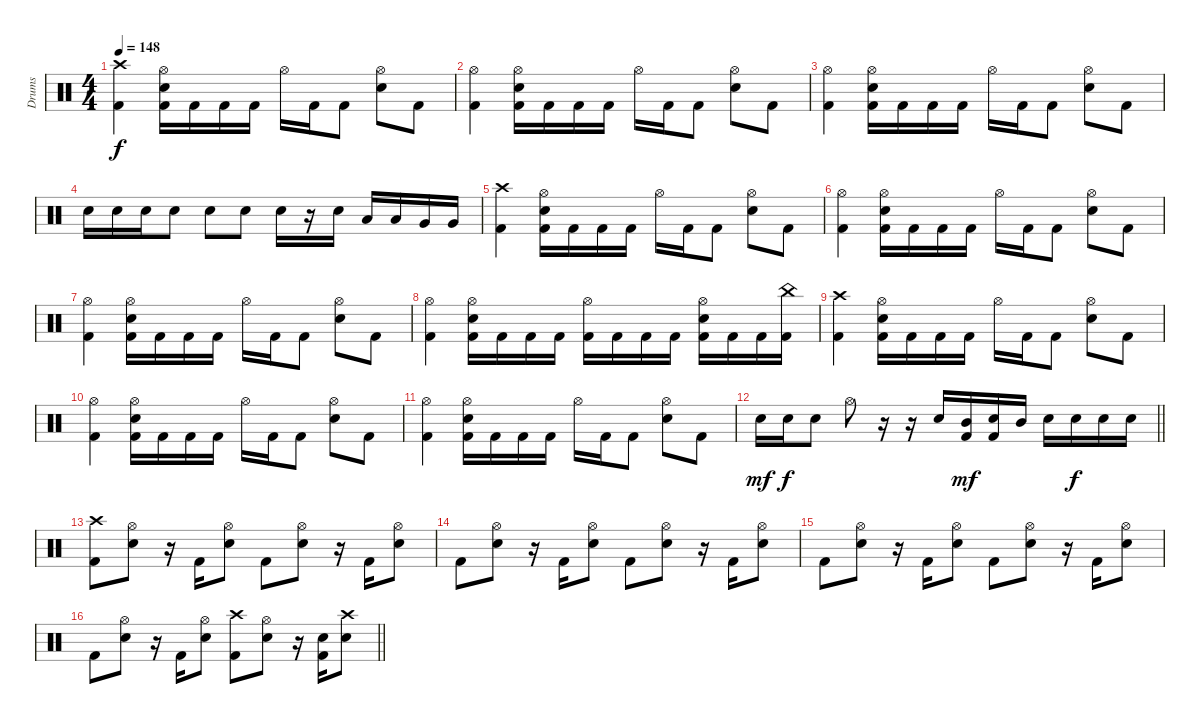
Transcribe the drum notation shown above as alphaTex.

\track ("Drums" "Drums") {instrument percussion}
\staff {score}
\articulation defaults
\ts (4 4)
\section ("" "")
\tempo 148
\clef neutral
\ks c
("Crash high (hit)" "Kick (hit) 2").4{dy f} ("Electric Snare (hit)" "Hi-Hat (open)" "Kick (hit) 2").16 "Kick (hit) 2".16 "Kick (hit) 2".16 "Kick (hit) 2".16 "Hi-Hat (open)".16 "Kick (hit) 2".16 "Kick (hit) 2".8 ("Electric Snare (hit)" "Hi-Hat (open)").8 "Kick (hit) 2".8 |
("Hi-Hat (open)" "Kick (hit) 2").4 ("Electric Snare (hit)" "Hi-Hat (open)" "Kick (hit) 2").16 "Kick (hit) 2".16 "Kick (hit) 2".16 "Kick (hit) 2".16 "Hi-Hat (open)".16 "Kick (hit) 2".16 "Kick (hit) 2".8 ("Electric Snare (hit)" "Hi-Hat (open)").8 "Kick (hit) 2".8 |
("Hi-Hat (open)" "Kick (hit) 2").4 ("Electric Snare (hit)" "Hi-Hat (open)" "Kick (hit) 2").16 "Kick (hit) 2".16 "Kick (hit) 2".16 "Kick (hit) 2".16 "Hi-Hat (open)".16 "Kick (hit) 2".16 "Kick (hit) 2".8 ("Electric Snare (hit)" "Hi-Hat (open)").8 "Kick (hit) 2".8 |
"Electric Snare (hit)".16 "Electric Snare (hit)".16 "Electric Snare (hit)".16 "Electric Snare (hit)".8 "Electric Snare (hit)".8 "Electric Snare (hit)".8 "Electric Snare (hit)".16 r.16 "Electric Snare (hit)".16 "Low Tom (hit)".16 "Low Tom (hit)".16 "Very Low Tom (hit)".16 "Very Low Tom (hit)".16 |
("Crash high (hit)" "Kick (hit) 2").4 ("Electric Snare (hit)" "Hi-Hat (open)" "Kick (hit) 2").16 "Kick (hit) 2".16 "Kick (hit) 2".16 "Kick (hit) 2".16 "Hi-Hat (open)".16 "Kick (hit) 2".16 "Kick (hit) 2".8 ("Electric Snare (hit)" "Hi-Hat (open)").8 "Kick (hit) 2".8 |
("Hi-Hat (open)" "Kick (hit) 2").4 ("Electric Snare (hit)" "Hi-Hat (open)" "Kick (hit) 2").16 "Kick (hit) 2".16 "Kick (hit) 2".16 "Kick (hit) 2".16 "Hi-Hat (open)".16 "Kick (hit) 2".16 "Kick (hit) 2".8 ("Electric Snare (hit)" "Hi-Hat (open)").8 "Kick (hit) 2".8 |
("Hi-Hat (open)" "Kick (hit) 2").4 ("Electric Snare (hit)" "Hi-Hat (open)" "Kick (hit) 2").16 "Kick (hit) 2".16 "Kick (hit) 2".16 "Kick (hit) 2".16 "Hi-Hat (open)".16 "Kick (hit) 2".16 "Kick (hit) 2".8 ("Electric Snare (hit)" "Hi-Hat (open)").8 "Kick (hit) 2".8 |
("Hi-Hat (open)" "Kick (hit) 2").4 ("Electric Snare (hit)" "Hi-Hat (open)" "Kick (hit) 2").16 "Kick (hit) 2".16 "Kick (hit) 2".16 "Kick (hit) 2".16 ("Hi-Hat (open)" "Kick (hit) 2").16 "Kick (hit) 2".16 "Kick (hit) 2".16 "Kick (hit) 2".16 ("Electric Snare (hit)" "Hi-Hat (open)" "Kick (hit) 2").16 "Kick (hit) 2".16 "Kick (hit) 2".16 ("China (hit)" "Kick (hit) 2").16 |
("Crash high (hit)" "Kick (hit) 2").4 ("Electric Snare (hit)" "Hi-Hat (open)" "Kick (hit) 2").16 "Kick (hit) 2".16 "Kick (hit) 2".16 "Kick (hit) 2".16 "Hi-Hat (open)".16 "Kick (hit) 2".16 "Kick (hit) 2".8 ("Electric Snare (hit)" "Hi-Hat (open)").8 "Kick (hit) 2".8 |
("Hi-Hat (open)" "Kick (hit) 2").4 ("Electric Snare (hit)" "Hi-Hat (open)" "Kick (hit) 2").16 "Kick (hit) 2".16 "Kick (hit) 2".16 "Kick (hit) 2".16 "Hi-Hat (open)".16 "Kick (hit) 2".16 "Kick (hit) 2".8 ("Electric Snare (hit)" "Hi-Hat (open)").8 "Kick (hit) 2".8 |
("Hi-Hat (open)" "Kick (hit) 2").4 ("Electric Snare (hit)" "Hi-Hat (open)" "Kick (hit) 2").16 "Kick (hit) 2".16 "Kick (hit) 2".16 "Kick (hit) 2".16 "Hi-Hat (open)".16 "Kick (hit) 2".16 "Kick (hit) 2".8 ("Electric Snare (hit)" "Hi-Hat (open)").8 "Kick (hit) 2".8 |
\barLineRight lightlight "Electric Snare (hit)".16{dy mf} "Electric Snare (hit)".16{dy f} "Electric Snare (hit)".8 "Hi-Hat (open)".8
r.16 r.16 "Electric Snare (hit)".16 ("Mid Tom (hit)" "Kick (hit) 2").16{dy mf} ("Electric Snare (hit)" "Kick (hit) 2").16 "Mid Tom (hit)".16 "Electric Snare (hit)".16 "Electric Snare (hit)".16{dy f} "Electric Snare (hit)".16 "Electric Snare (hit)".16 |
\section ("" "")
("Crash high (hit)" "Kick (hit) 2").8 ("Electric Snare (hit)" "Hi-Hat (open)").8 r.16 "Kick (hit) 2".16 ("Electric Snare (hit)" "Hi-Hat (open)").8 "Kick (hit) 2".8 ("Electric Snare (hit)" "Hi-Hat (open)").8 r.16 "Kick (hit) 2".16 ("Electric Snare (hit)" "Hi-Hat (open)").8 |
"Kick (hit) 2".8 ("Electric Snare (hit)" "Hi-Hat (open)").8 r.16 "Kick (hit) 2".16 ("Electric Snare (hit)" "Hi-Hat (open)").8 "Kick (hit) 2".8 ("Electric Snare (hit)" "Hi-Hat (open)").8 r.16 "Kick (hit) 2".16 ("Electric Snare (hit)" "Hi-Hat (open)").8 |
"Kick (hit) 2".8 ("Electric Snare (hit)" "Hi-Hat (open)").8 r.16 "Kick (hit) 2".16 ("Electric Snare (hit)" "Hi-Hat (open)").8 "Kick (hit) 2".8 ("Electric Snare (hit)" "Hi-Hat (open)").8 r.16 "Kick (hit) 2".16 ("Electric Snare (hit)" "Hi-Hat (open)").8 |
\barLineRight lightlight "Kick (hit) 2".8
("Electric Snare (hit)" "Hi-Hat (open)").8 r.16 "Kick (hit) 2".16 ("Electric Snare (hit)" "Hi-Hat (open)").8 ("Crash high (hit)" "Kick (hit) 2").8 ("Electric Snare (hit)" "Hi-Hat (open)").8 r.16 ("Electric Snare (hit)" "Kick (hit) 2").16 ("Electric Snare (hit)" "Crash high (hit)").8
